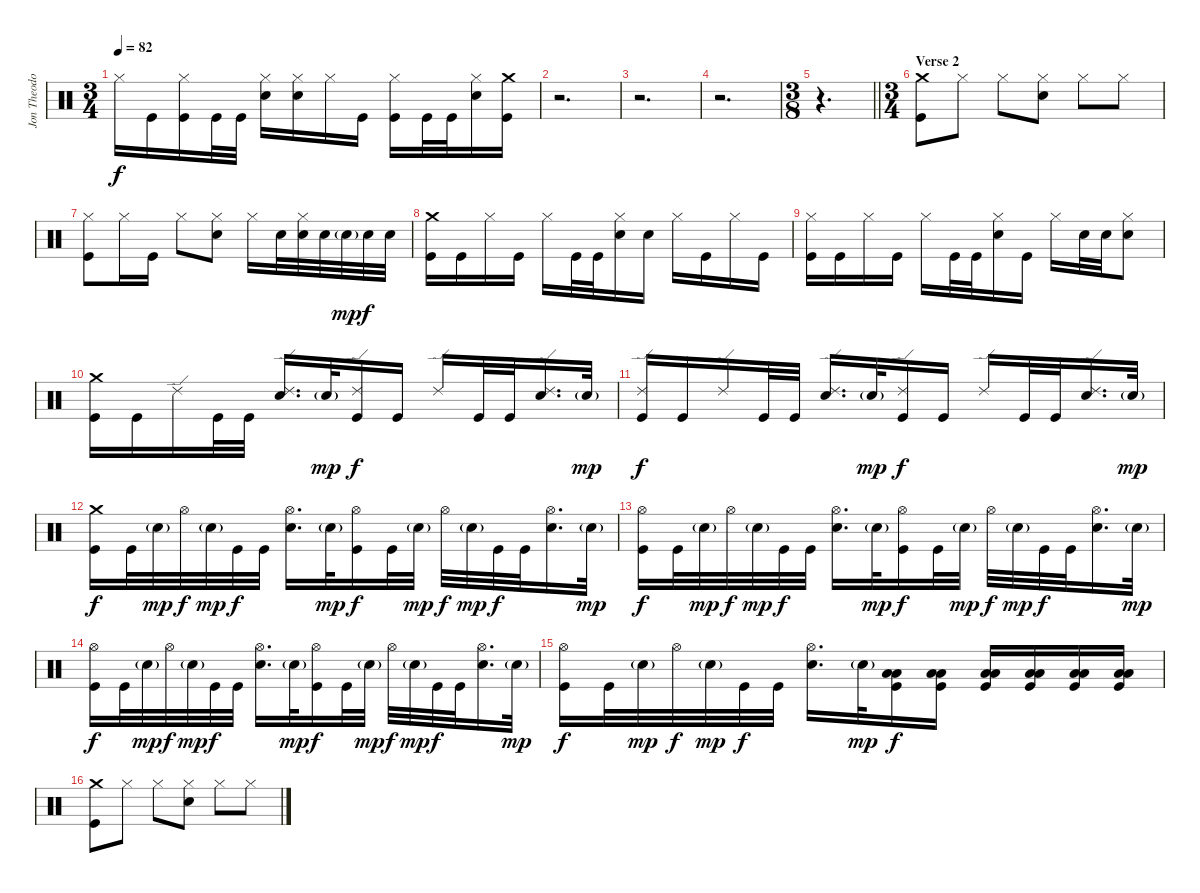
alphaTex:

\track ("Jon Theodore" "Jon Theodo") {instrument percussion}
\staff {score}
\articulation defaults
\ts (3 4)
\tempo 82
\clef neutral
\ks c "Hi-Hat (closed)".16{dy f} "Kick (hit)".16
("Hi-Hat (closed)" "Kick (hit)").16 "Kick (hit)".32 "Kick (hit)".32 ("Hi-Hat (closed)" "Snare (hit) 2").16 ("Hi-Hat (closed)" "Snare (hit) 2").16 "Hi-Hat (closed)".16 "Kick (hit)".16 ("Hi-Hat (closed)" "Kick (hit)").16 "Kick (hit)".32 "Kick (hit)".32 ("Hi-Hat (closed)" "Snare (hit) 2").16 ("Crash medium (hit)" "Kick (hit)").16 |
r.2{d} |
r.2{d} |
r.2{d} |
\ts (3 8)
\barLineRight lightlight
r.4{d} |
\ts (3 4)
\section ("" "Verse 2")
("Crash medium (hit)" "Kick (hit)").8 "Hi-Hat (closed)".8 "Hi-Hat (closed)".8 ("Hi-Hat (closed)" "Snare (hit) 2").8 "Hi-Hat (closed)".8 "Hi-Hat (closed)".8 |
("Hi-Hat (closed)" "Kick (hit)").8 "Hi-Hat (closed)".16 "Kick (hit)".16 "Hi-Hat (closed)".8 ("Hi-Hat (closed)" "Snare (hit) 2").8 "Hi-Hat (closed)".16 "Snare (hit) 2".32 ("Hi-Hat (closed)" "Snare (hit) 2").32 "Snare (hit) 2".32 "Snare (hit) 2"{g}.32{dy mp} "Snare (hit) 2".32{dy f} "Snare (hit) 2".32 |
("Crash medium (hit)" "Kick (hit)").16 "Kick (hit)".16 "Hi-Hat (closed)".16 "Kick (hit)".16 "Hi-Hat (closed)".16 "Kick (hit)".32 "Kick (hit)".32 ("Hi-Hat (closed)" "Snare (hit) 2").16 "Snare (hit) 2".16 "Hi-Hat (closed)".16 "Kick (hit)".16 "Hi-Hat (closed)".16 "Kick (hit)".16 |
("Hi-Hat (closed)" "Kick (hit)").16 "Kick (hit)".16 "Hi-Hat (closed)".16 "Kick (hit)".16 "Hi-Hat (closed)".16 "Kick (hit)".32 "Kick (hit)".32 ("Hi-Hat (closed)" "Snare (hit) 2").16 "Kick (hit)".16 "Hi-Hat (closed)".16 "Snare (hit) 2".32 "Snare (hit) 2".32 ("Hi-Hat (closed)" "Snare (hit) 2").8 |
("Crash medium (hit)" "Kick (hit)").16 "Kick (hit)".16 "Ride (edge) 2".16 "Kick (hit)".32 "Kick (hit)".32 ("Ride (edge) 2" "Snare (hit) 2").16{d} "Snare (hit) 2"{g}.32{dy mp} ("Ride (edge) 2" "Kick (hit)").16{dy f} "Kick (hit)".16 "Ride (edge) 2".16 "Kick (hit)".32 "Kick (hit)".32 ("Ride (edge) 2" "Snare (hit) 2").16{d} "Snare (hit) 2"{g}.32{dy mp} |
("Ride (edge) 2" "Kick (hit)").16{dy f} "Kick (hit)".16 "Ride (edge) 2".16 "Kick (hit)".32 "Kick (hit)".32 ("Ride (edge) 2" "Snare (hit) 2").16{d} "Snare (hit) 2"{g}.32{dy mp} ("Ride (edge) 2" "Kick (hit)").16{dy f} "Kick (hit)".16 "Ride (edge) 2".16 "Kick (hit)".32 "Kick (hit)".32 ("Ride (edge) 2" "Snare (hit) 2").16{d} "Snare (hit) 2"{g}.32{dy mp} |
("Crash medium (hit)" "Kick (hit)").16{dy f} "Kick (hit)".32 "Snare (hit) 2"{g}.32{dy mp} "Hi-Hat (open)".32{dy f} "Snare (hit) 2"{g}.32{dy mp} "Kick (hit)".32{dy f} "Kick (hit)".32 ("Hi-Hat (open)" "Snare (hit) 2").16{d} "Snare (hit) 2"{g}.32{dy mp} ("Hi-Hat (open)" "Kick (hit)").16{dy f} "Kick (hit)".32 "Snare (hit) 2"{g}.32{dy mp} "Hi-Hat (open)".32{dy f} "Snare (hit) 2"{g}.32{dy mp} "Kick (hit)".32{dy f} "Kick (hit)".32 ("Hi-Hat (open)" "Snare (hit) 2").16{d} "Snare (hit) 2"{g}.32{dy mp} |
("Hi-Hat (open)" "Kick (hit)").16{dy f} "Kick (hit)".32 "Snare (hit) 2"{g}.32{dy mp} "Hi-Hat (open)".32{dy f} "Snare (hit) 2"{g}.32{dy mp} "Kick (hit)".32{dy f} "Kick (hit)".32 ("Hi-Hat (open)" "Snare (hit) 2").16{d} "Snare (hit) 2"{g}.32{dy mp} ("Hi-Hat (open)" "Kick (hit)").16{dy f} "Kick (hit)".32 "Snare (hit) 2"{g}.32{dy mp} "Hi-Hat (open)".32{dy f} "Snare (hit) 2"{g}.32{dy mp} "Kick (hit)".32{dy f} "Kick (hit)".32 ("Hi-Hat (open)" "Snare (hit) 2").16{d} "Snare (hit) 2"{g}.32{dy mp} |
("Hi-Hat (open)" "Kick (hit)").16{dy f} "Kick (hit)".32 "Snare (hit) 2"{g}.32{dy mp} "Hi-Hat (open)".32{dy f} "Snare (hit) 2"{g}.32{dy mp} "Kick (hit)".32{dy f} "Kick (hit)".32 ("Hi-Hat (open)" "Snare (hit) 2").16{d} "Snare (hit) 2"{g}.32{dy mp} ("Hi-Hat (open)" "Kick (hit)").16{dy f} "Kick (hit)".32 "Snare (hit) 2"{g}.32{dy mp} "Hi-Hat (open)".32{dy f} "Snare (hit) 2"{g}.32{dy mp} "Kick (hit)".32{dy f} "Kick (hit)".32 ("Hi-Hat (open)" "Snare (hit) 2").16{d} "Snare (hit) 2"{g}.32{dy mp} |
("Hi-Hat (open)" "Kick (hit)").16{dy f} "Kick (hit)".32 "Snare (hit) 2"{g}.32{dy mp} "Hi-Hat (open)".32{dy f} "Snare (hit) 2"{g}.32{dy mp} "Kick (hit)".32{dy f} "Kick (hit)".32 ("Hi-Hat (open)" "Snare (hit) 2").16{d} "Snare (hit) 2"{g}.32{dy mp} ("Low Tom (hit)" "Low Floor Tom (hit)" "Kick (hit)").16{dy f} ("Low Tom (hit)" "Low Floor Tom (hit)" "Kick (hit)").16 ("Low Tom (hit)" "Low Floor Tom (hit)" "Kick (hit)").16 ("Low Tom (hit)" "Low Floor Tom (hit)" "Kick (hit)").16 ("Low Tom (hit)" "Low Floor Tom (hit)" "Kick (hit)").16 ("Low Tom (hit)" "Low Floor Tom (hit)" "Kick (hit)").16 |
("Crash medium (hit)" "Kick (hit)").8 "Hi-Hat (closed)".8 "Hi-Hat (closed)".8 ("Hi-Hat (closed)" "Snare (hit) 2").8 "Hi-Hat (closed)".8 "Hi-Hat (closed)".8
